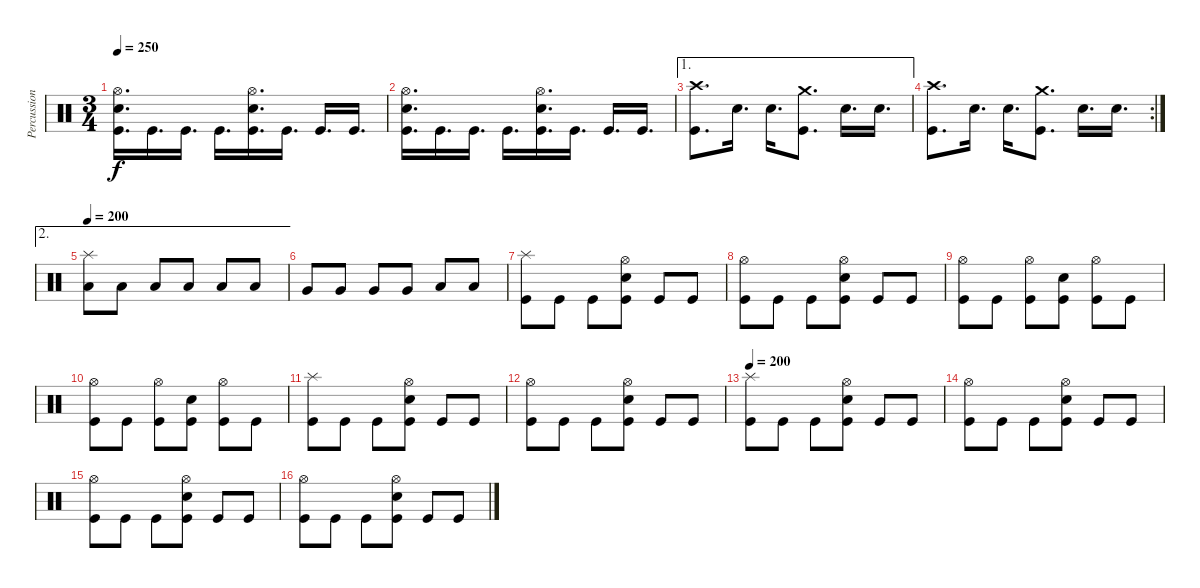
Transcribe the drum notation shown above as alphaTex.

\track ("Percussion" "Percussion") {instrument percussion}
\staff {score}
\articulation defaults
\ts (3 4)
\tempo 250
\clef neutral
\ks c
("Hi-Hat (open)" "Snare (hit) 2" "Kick (hit)").16{d dy f} "Kick (hit)".16{d} "Kick (hit)".16{d} "Kick (hit)".16{d} ("Hi-Hat (open)" "Snare (hit) 2" "Kick (hit)").16{d} "Kick (hit)".16{d} "Kick (hit)".16{d} "Kick (hit)".16{d} |
("Hi-Hat (open)" "Snare (hit) 2" "Kick (hit)").16{d} "Kick (hit)".16{d} "Kick (hit)".16{d} "Kick (hit)".16{d} ("Hi-Hat (open)" "Snare (hit) 2" "Kick (hit)").16{d} "Kick (hit)".16{d} "Kick (hit)".16{d} "Kick (hit)".16{d} |
\ae 1
("Crash high (hit)" "Kick (hit)").8{d} "Snare (hit) 2".16{d} "Snare (hit) 2".16{d} ("Crash medium (hit)" "Kick (hit)").8{d} "Snare (hit) 2".16{d} "Snare (hit) 2".16{d} |
\rc 2
("Crash high (hit)" "Kick (hit)").8{d} "Snare (hit) 2".16{d} "Snare (hit) 2".16{d} ("Crash medium (hit)" "Kick (hit)").8{d} "Snare (hit) 2".16{d} "Snare (hit) 2".16{d} |
\ae 2
\tempo 200
("Splash (hit)" "Low Tom (hit)").8 "Low Tom (hit)".8 "Low Tom (hit)".8 "Low Tom (hit)".8 "Low Tom (hit)".8 "Low Tom (hit)".8 |
"Very Low Tom (hit)".8 "Very Low Tom (hit)".8 "Very Low Tom (hit)".8 "Very Low Tom (hit)".8 "Low Floor Tom (hit)".8 "Low Floor Tom (hit)".8 |
("Splash (hit)" "Kick (hit)").8 "Kick (hit)".8 "Kick (hit)".8 ("Hi-Hat (open)" "Snare (hit) 2" "Kick (hit)").8 "Kick (hit)".8 "Kick (hit)".8 |
("Hi-Hat (open)" "Kick (hit)").8 "Kick (hit)".8 "Kick (hit)".8 ("Hi-Hat (open)" "Snare (hit) 2" "Kick (hit)").8 "Kick (hit)".8 "Kick (hit)".8 |
("Hi-Hat (open)" "Kick (hit)").8 "Kick (hit)".8 ("Hi-Hat (open)" "Kick (hit)").8 ("Snare (hit) 2" "Kick (hit)").8 ("Hi-Hat (open)" "Kick (hit)").8 "Kick (hit)".8 |
("Hi-Hat (open)" "Kick (hit)").8 "Kick (hit)".8 ("Hi-Hat (open)" "Kick (hit)").8 ("Snare (hit) 2" "Kick (hit)").8 ("Hi-Hat (open)" "Kick (hit)").8 "Kick (hit)".8 |
("Splash (hit)" "Kick (hit)").8 "Kick (hit)".8 "Kick (hit)".8 ("Hi-Hat (open)" "Snare (hit) 2" "Kick (hit)").8 "Kick (hit)".8 "Kick (hit)".8 |
("Hi-Hat (open)" "Kick (hit)").8 "Kick (hit)".8 "Kick (hit)".8 ("Hi-Hat (open)" "Snare (hit) 2" "Kick (hit)").8 "Kick (hit)".8 "Kick (hit)".8 |
\tempo 200
("Splash (hit)" "Kick (hit)").8 "Kick (hit)".8 "Kick (hit)".8 ("Hi-Hat (open)" "Snare (hit) 2" "Kick (hit)").8 "Kick (hit)".8 "Kick (hit)".8 |
("Hi-Hat (open)" "Kick (hit)").8 "Kick (hit)".8 "Kick (hit)".8 ("Hi-Hat (open)" "Snare (hit) 2" "Kick (hit)").8 "Kick (hit)".8 "Kick (hit)".8 |
("Hi-Hat (open)" "Kick (hit)").8 "Kick (hit)".8 "Kick (hit)".8 ("Hi-Hat (open)" "Snare (hit) 2" "Kick (hit)").8 "Kick (hit)".8 "Kick (hit)".8 |
("Hi-Hat (open)" "Kick (hit)").8 "Kick (hit)".8 "Kick (hit)".8 ("Hi-Hat (open)" "Snare (hit) 2" "Kick (hit)").8 "Kick (hit)".8 "Kick (hit)".8
